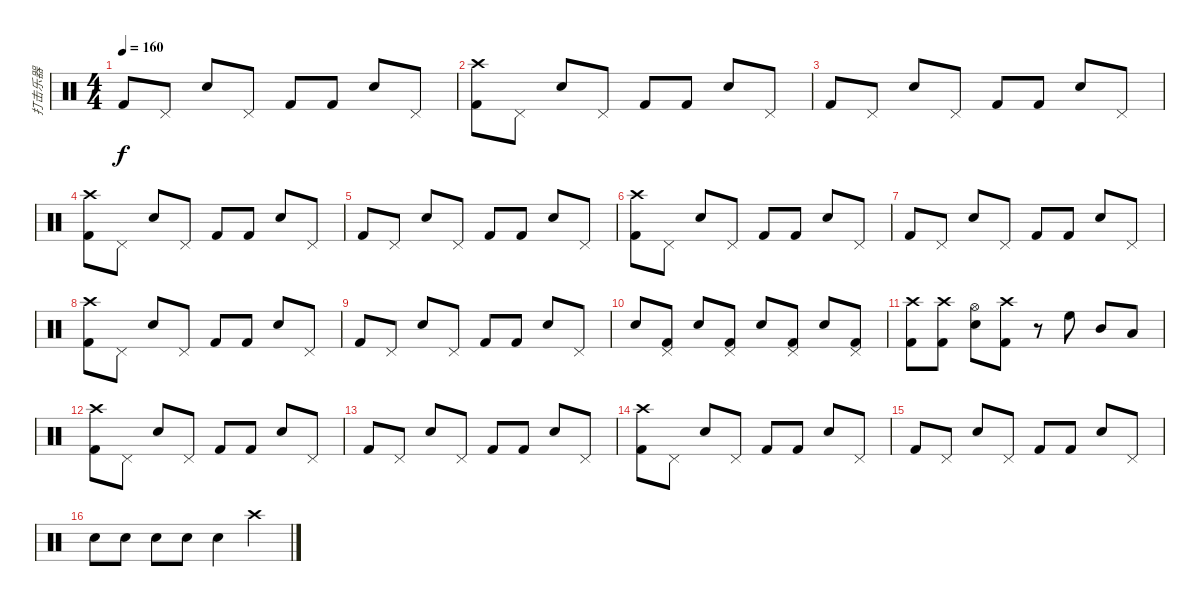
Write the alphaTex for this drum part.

\track ("打击乐器" "打击乐器") {instrument percussion}
\staff {score}
\articulation defaults
\ts (4 4)
\tempo 160
\clef neutral
\ks c "Kick (hit) 2".8{dy f} "Pedal Hi-Hat (hit)".8 "Snare (hit) 2".8 "Pedal Hi-Hat (hit)".8 "Kick (hit) 2".8 "Kick (hit) 2".8 "Snare (hit) 2".8 "Pedal Hi-Hat (hit)".8
|
("Crash high (hit)" "Kick (hit) 2").8 "Pedal Hi-Hat (hit)".8 "Snare (hit) 2".8 "Pedal Hi-Hat (hit)".8 "Kick (hit) 2".8 "Kick (hit) 2".8 "Snare (hit) 2".8 "Pedal Hi-Hat (hit)".8 |
"Kick (hit) 2".8 "Pedal Hi-Hat (hit)".8 "Snare (hit) 2".8 "Pedal Hi-Hat (hit)".8 "Kick (hit) 2".8 "Kick (hit) 2".8 "Snare (hit) 2".8 "Pedal Hi-Hat (hit)".8 |
("Crash high (hit)" "Kick (hit) 2").8 "Pedal Hi-Hat (hit)".8 "Snare (hit) 2".8 "Pedal Hi-Hat (hit)".8 "Kick (hit) 2".8 "Kick (hit) 2".8 "Snare (hit) 2".8 "Pedal Hi-Hat (hit)".8 |
"Kick (hit) 2".8 "Pedal Hi-Hat (hit)".8 "Snare (hit) 2".8 "Pedal Hi-Hat (hit)".8 "Kick (hit) 2".8 "Kick (hit) 2".8 "Snare (hit) 2".8 "Pedal Hi-Hat (hit)".8 |
("Crash high (hit)" "Kick (hit) 2").8 "Pedal Hi-Hat (hit)".8 "Snare (hit) 2".8 "Pedal Hi-Hat (hit)".8 "Kick (hit) 2".8 "Kick (hit) 2".8 "Snare (hit) 2".8 "Pedal Hi-Hat (hit)".8 |
"Kick (hit) 2".8 "Pedal Hi-Hat (hit)".8 "Snare (hit) 2".8 "Pedal Hi-Hat (hit)".8 "Kick (hit) 2".8 "Kick (hit) 2".8 "Snare (hit) 2".8 "Pedal Hi-Hat (hit)".8 |
("Crash high (hit)" "Kick (hit) 2").8 "Pedal Hi-Hat (hit)".8 "Snare (hit) 2".8 "Pedal Hi-Hat (hit)".8 "Kick (hit) 2".8 "Kick (hit) 2".8 "Snare (hit) 2".8 "Pedal Hi-Hat (hit)".8 |
"Kick (hit) 2".8 "Pedal Hi-Hat (hit)".8 "Snare (hit) 2".8 "Pedal Hi-Hat (hit)".8 "Kick (hit) 2".8 "Kick (hit) 2".8 "Snare (hit) 2".8 "Pedal Hi-Hat (hit)".8 |
"Snare (hit) 2".8 ("Pedal Hi-Hat (hit)" "Kick (hit) 2").8 "Snare (hit) 2".8 ("Pedal Hi-Hat (hit)" "Kick (hit) 2").8 "Snare (hit) 2".8 ("Pedal Hi-Hat (hit)" "Kick (hit) 2").8 "Snare (hit) 2".8 ("Pedal Hi-Hat (hit)" "Kick (hit) 2").8 |
("Crash high (hit)" "Kick (hit) 2").8 ("Crash high (hit)" "Kick (hit) 2").8 ("Hi-Hat (open)" "Snare (hit) 2").8 ("Crash high (hit)" "Kick (hit) 2").8 r.8 "High Floor Tom (hit)".8 "Mid Tom (hit)".8 "Low Tom (hit)".8 |
("Crash high (hit)" "Kick (hit) 2").8 "Pedal Hi-Hat (hit)".8 "Snare (hit) 2".8 "Pedal Hi-Hat (hit)".8 "Kick (hit) 2".8 "Kick (hit) 2".8 "Snare (hit) 2".8 "Pedal Hi-Hat (hit)".8 |
"Kick (hit) 2".8 "Pedal Hi-Hat (hit)".8 "Snare (hit) 2".8 "Pedal Hi-Hat (hit)".8 "Kick (hit) 2".8 "Kick (hit) 2".8 "Snare (hit) 2".8 "Pedal Hi-Hat (hit)".8 |
("Crash high (hit)" "Kick (hit) 2").8 "Pedal Hi-Hat (hit)".8 "Snare (hit) 2".8 "Pedal Hi-Hat (hit)".8 "Kick (hit) 2".8 "Kick (hit) 2".8 "Snare (hit) 2".8 "Pedal Hi-Hat (hit)".8 |
"Kick (hit) 2".8 "Pedal Hi-Hat (hit)".8 "Snare (hit) 2".8 "Pedal Hi-Hat (hit)".8 "Kick (hit) 2".8 "Kick (hit) 2".8 "Snare (hit) 2".8 "Pedal Hi-Hat (hit)".8 |
"Snare (hit) 2".8 "Snare (hit) 2".8 "Snare (hit) 2".8 "Snare (hit) 2".8 "Snare (hit) 2".4 "Crash high (hit)".4
